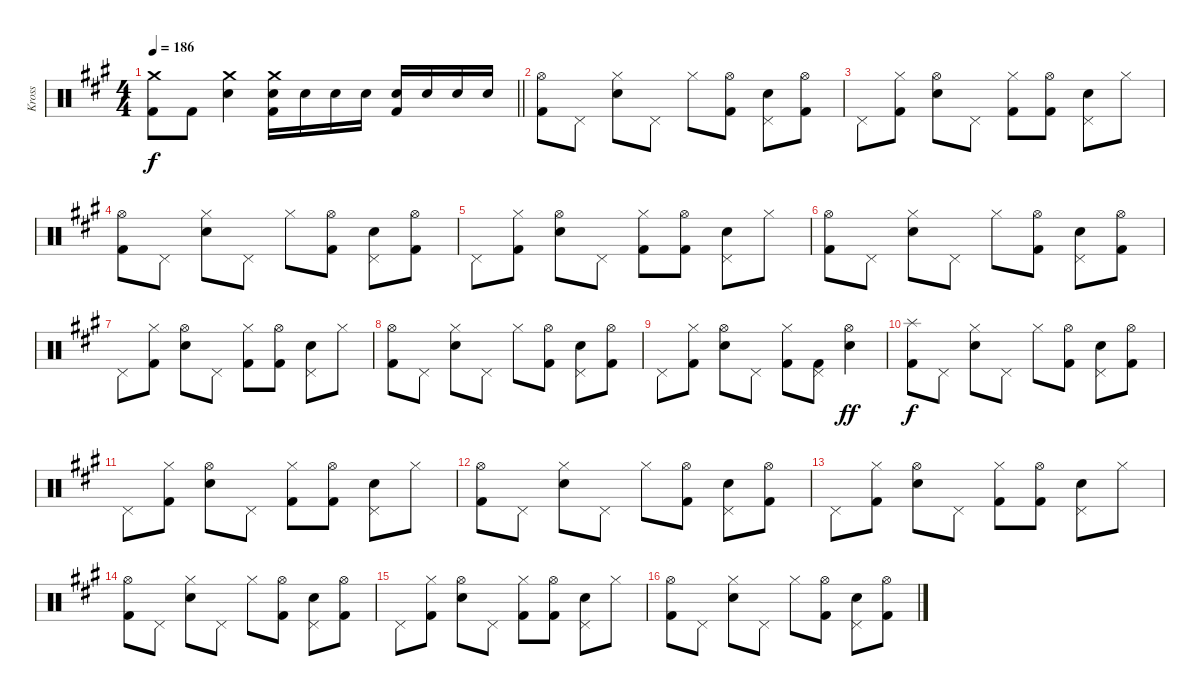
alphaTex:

\track ("Kross" "Kross") {instrument percussion}
\staff {score}
\articulation defaults
\ts (4 4)
\tempo 186
\clef neutral
\barLineRight lightlight
\ks a
("Crash medium (hit)" "Kick (hit) 2").8{dy f} "Kick (hit) 2".8 ("Crash medium (hit)" "Electric Snare (hit)").4 ("Crash medium (hit)" "Electric Snare (hit)" "Kick (hit) 2").16 "Electric Snare (hit)".16 "Electric Snare (hit)".16 "Electric Snare (hit)".16 ("Electric Snare (hit)" "Kick (hit) 2").16 "Electric Snare (hit)".16 "Electric Snare (hit)".16 "Electric Snare (hit)".16 |
("Hi-Hat (open)" "Kick (hit) 2").8 "Pedal Hi-Hat (hit)".8 ("Hi-Hat (closed)" "Electric Snare (hit)").8 "Pedal Hi-Hat (hit)".8 "Hi-Hat (closed)".8 ("Hi-Hat (open)" "Kick (hit) 2").8 ("Pedal Hi-Hat (hit)" "Electric Snare (hit)").8 ("Hi-Hat (open)" "Kick (hit) 2").8 |
"Pedal Hi-Hat (hit)".8 ("Hi-Hat (closed)" "Kick (hit) 2").8 ("Hi-Hat (open)" "Electric Snare (hit)").8 "Pedal Hi-Hat (hit)".8 ("Hi-Hat (closed)" "Kick (hit) 2").8 ("Hi-Hat (open)" "Kick (hit) 2").8 ("Pedal Hi-Hat (hit)" "Electric Snare (hit)").8 "Hi-Hat (closed)".8 |
("Hi-Hat (open)" "Kick (hit) 2").8 "Pedal Hi-Hat (hit)".8 ("Hi-Hat (closed)" "Electric Snare (hit)").8 "Pedal Hi-Hat (hit)".8 "Hi-Hat (closed)".8 ("Hi-Hat (open)" "Kick (hit) 2").8 ("Pedal Hi-Hat (hit)" "Electric Snare (hit)").8 ("Hi-Hat (open)" "Kick (hit) 2").8 |
"Pedal Hi-Hat (hit)".8 ("Hi-Hat (closed)" "Kick (hit) 2").8 ("Hi-Hat (open)" "Electric Snare (hit)").8 "Pedal Hi-Hat (hit)".8 ("Hi-Hat (closed)" "Kick (hit) 2").8 ("Hi-Hat (open)" "Kick (hit) 2").8 ("Pedal Hi-Hat (hit)" "Electric Snare (hit)").8 "Hi-Hat (closed)".8 |
("Hi-Hat (open)" "Kick (hit) 2").8 "Pedal Hi-Hat (hit)".8 ("Hi-Hat (closed)" "Electric Snare (hit)").8 "Pedal Hi-Hat (hit)".8 "Hi-Hat (closed)".8 ("Hi-Hat (open)" "Kick (hit) 2").8 ("Pedal Hi-Hat (hit)" "Electric Snare (hit)").8 ("Hi-Hat (open)" "Kick (hit) 2").8 |
"Pedal Hi-Hat (hit)".8 ("Hi-Hat (closed)" "Kick (hit) 2").8 ("Hi-Hat (open)" "Electric Snare (hit)").8 "Pedal Hi-Hat (hit)".8 ("Hi-Hat (closed)" "Kick (hit) 2").8 ("Hi-Hat (open)" "Kick (hit) 2").8 ("Pedal Hi-Hat (hit)" "Electric Snare (hit)").8 "Hi-Hat (closed)".8 |
("Hi-Hat (open)" "Kick (hit) 2").8 "Pedal Hi-Hat (hit)".8 ("Hi-Hat (closed)" "Electric Snare (hit)").8 "Pedal Hi-Hat (hit)".8 "Hi-Hat (closed)".8 ("Hi-Hat (open)" "Kick (hit) 2").8 ("Pedal Hi-Hat (hit)" "Electric Snare (hit)").8 ("Hi-Hat (open)" "Kick (hit) 2").8 |
"Pedal Hi-Hat (hit)".8 ("Hi-Hat (closed)" "Kick (hit) 2").8 ("Hi-Hat (open)" "Electric Snare (hit)").8 "Pedal Hi-Hat (hit)".8 ("Hi-Hat (closed)" "Kick (hit) 2").8 ("Pedal Hi-Hat (hit)" "Kick (hit) 2").8 ("Hi-Hat (open)" "Electric Snare (hit)").4{dy ff} |
("Splash (hit)" "Kick (hit) 2").8{dy f} "Pedal Hi-Hat (hit)".8 ("Hi-Hat (closed)" "Electric Snare (hit)").8 "Pedal Hi-Hat (hit)".8 "Hi-Hat (closed)".8 ("Hi-Hat (open)" "Kick (hit) 2").8 ("Pedal Hi-Hat (hit)" "Electric Snare (hit)").8 ("Hi-Hat (open)" "Kick (hit) 2").8 |
"Pedal Hi-Hat (hit)".8 ("Hi-Hat (closed)" "Kick (hit) 2").8 ("Hi-Hat (open)" "Electric Snare (hit)").8 "Pedal Hi-Hat (hit)".8 ("Hi-Hat (closed)" "Kick (hit) 2").8 ("Hi-Hat (open)" "Kick (hit) 2").8 ("Pedal Hi-Hat (hit)" "Electric Snare (hit)").8 "Hi-Hat (closed)".8 |
("Hi-Hat (open)" "Kick (hit) 2").8 "Pedal Hi-Hat (hit)".8 ("Hi-Hat (closed)" "Electric Snare (hit)").8 "Pedal Hi-Hat (hit)".8 "Hi-Hat (closed)".8 ("Hi-Hat (open)" "Kick (hit) 2").8 ("Pedal Hi-Hat (hit)" "Electric Snare (hit)").8 ("Hi-Hat (open)" "Kick (hit) 2").8 |
"Pedal Hi-Hat (hit)".8 ("Hi-Hat (closed)" "Kick (hit) 2").8 ("Hi-Hat (open)" "Electric Snare (hit)").8 "Pedal Hi-Hat (hit)".8 ("Hi-Hat (closed)" "Kick (hit) 2").8 ("Hi-Hat (open)" "Kick (hit) 2").8 ("Pedal Hi-Hat (hit)" "Electric Snare (hit)").8 "Hi-Hat (closed)".8 |
("Hi-Hat (open)" "Kick (hit) 2").8 "Pedal Hi-Hat (hit)".8 ("Hi-Hat (closed)" "Electric Snare (hit)").8 "Pedal Hi-Hat (hit)".8 "Hi-Hat (closed)".8 ("Hi-Hat (open)" "Kick (hit) 2").8 ("Pedal Hi-Hat (hit)" "Electric Snare (hit)").8 ("Hi-Hat (open)" "Kick (hit) 2").8 |
"Pedal Hi-Hat (hit)".8 ("Hi-Hat (closed)" "Kick (hit) 2").8 ("Hi-Hat (open)" "Electric Snare (hit)").8 "Pedal Hi-Hat (hit)".8 ("Hi-Hat (closed)" "Kick (hit) 2").8 ("Hi-Hat (open)" "Kick (hit) 2").8 ("Pedal Hi-Hat (hit)" "Electric Snare (hit)").8 "Hi-Hat (closed)".8 |
("Hi-Hat (open)" "Kick (hit) 2").8 "Pedal Hi-Hat (hit)".8 ("Hi-Hat (closed)" "Electric Snare (hit)").8 "Pedal Hi-Hat (hit)".8 "Hi-Hat (closed)".8 ("Hi-Hat (open)" "Kick (hit) 2").8 ("Pedal Hi-Hat (hit)" "Electric Snare (hit)").8 ("Hi-Hat (open)" "Kick (hit) 2").8
